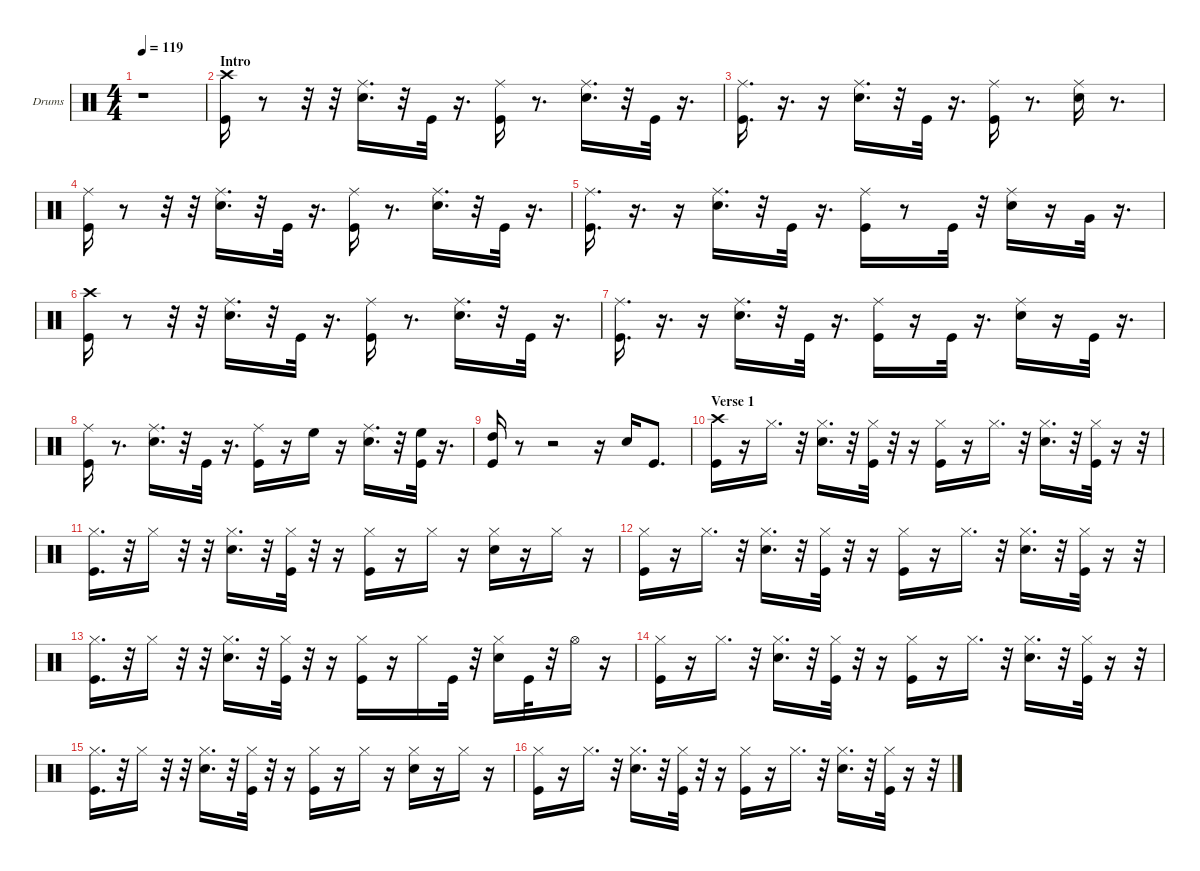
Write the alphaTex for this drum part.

\hideDynamics
\bracketExtendMode groupsimilarinstruments
\firstSystemTrackNameOrientation horizontal
\otherSystemsTrackNameOrientation horizontal
\track ("Drums" "Drums") {instrument percussion}
\staff {score}
\articulation defaults
\ts (4 4)
\tempo 119
\clef neutral
\ks c
r.1{dy mf} |
\section ("" "Intro")
("Kick (hit)" "Crash high (hit)").16 r.8 r.32 r.32 ("Ride (middle)" "Snare (hit) 2").16{d} r.32 "Kick (hit)".32 r.16{d} ("Kick (hit)" "Ride (middle)").16 r.8{d} ("Snare (hit) 2" "Ride (middle)").16{d} r.32 "Kick (hit)".32 r.16{d} |
("Ride (middle)" "Kick (hit)").16{d} r.16{d} r.16 ("Ride (middle)" "Snare (hit) 2").16{d} r.32 "Kick (hit)".32 r.16{d} ("Ride (middle)" "Kick (hit)").16 r.8{d} ("Ride (middle)" "Snare (hit) 2").16 r.8{d} |
("Kick (hit)" "Ride (middle)").16 r.8 r.32 r.32 ("Ride (middle)" "Snare (hit) 2").16{d} r.32 "Kick (hit)".32 r.16{d} ("Kick (hit)" "Ride (middle)").16 r.8{d} ("Snare (hit) 2" "Ride (middle)").16{d} r.32 "Kick (hit)".32 r.16{d} |
("Ride (middle)" "Kick (hit)").16{d} r.16{d} r.16 ("Ride (middle)" "Snare (hit) 2").16{d} r.32 "Kick (hit)".32 r.16{d} ("Ride (middle)" "Kick (hit)").16 r.8 "Kick (hit)".32 r.32 ("Ride (middle)" "Snare (hit) 2").16 r.16 "Very Low Tom (hit)".32 r.16{d} |
("Kick (hit)" "Crash high (hit)").16 r.8 r.32 r.32 ("Ride (middle)" "Snare (hit) 2").16{d} r.32 "Kick (hit)".32 r.16{d} ("Kick (hit)" "Ride (middle)").16 r.8{d} ("Snare (hit) 2" "Ride (middle)").16{d} r.32 "Kick (hit)".32 r.16{d} |
("Ride (middle)" "Kick (hit)").16{d} r.16{d} r.16 ("Ride (middle)" "Snare (hit) 2").16{d} r.32 "Kick (hit)".32 r.16{d} ("Ride (middle)" "Kick (hit)").16 r.16 "Kick (hit)".32 r.16{d} ("Ride (middle)" "Snare (hit) 2").16 r.16 "Kick (hit)".32 r.16{d} |
("Kick (hit)" "Ride (middle)").16 r.8{d} ("Ride (middle)" "Snare (hit) 2").16{d} r.32 "Kick (hit)".32 r.16{d} ("Kick (hit)" "Ride (middle)").16 r.16 "High Floor Tom (hit)".16 r.16 ("Snare (hit) 2" "Ride (middle)").16{d} r.32 ("Kick (hit)" "High Floor Tom (hit)").32 r.16{d} |
("Kick (hit)" "High Tom (hit)").16 r.8 r.2 r.16 "Snare (hit) 2".16 "Kick (hit)".8{d} |
\section ("" "Verse 1")
("Kick (hit)" "Crash high (hit)").16 r.16 "Hi-Hat (closed)".16{d} r.32 ("Snare (hit) 2" "Hi-Hat (closed)").16{d} r.32 ("Kick (hit)" "Hi-Hat (closed)").32 r.32 r.16 ("Kick (hit)" "Hi-Hat (closed)").16 r.16 "Hi-Hat (closed)".16{d} r.32 ("Snare (hit) 2" "Hi-Hat (closed)").16{d} r.32 ("Kick (hit)" "Hi-Hat (closed)").32 r.16 r.32 |
("Kick (hit)" "Hi-Hat (closed)").16{d} r.32 "Hi-Hat (closed)".16 r.32 r.32 ("Snare (hit) 2" "Hi-Hat (closed)").16{d} r.32 ("Kick (hit)" "Hi-Hat (closed)").32 r.32 r.16 ("Kick (hit)" "Hi-Hat (closed)").16 r.16 "Hi-Hat (closed)".16 r.16 ("Snare (hit) 2" "Hi-Hat (closed)").16 r.16 "Hi-Hat (closed)".16 r.16 |
("Kick (hit)" "Hi-Hat (closed)").16 r.16 "Hi-Hat (closed)".16{d} r.32 ("Snare (hit) 2" "Hi-Hat (closed)").16{d} r.32 ("Kick (hit)" "Hi-Hat (closed)").32 r.32 r.16 ("Kick (hit)" "Hi-Hat (closed)").16 r.16 "Hi-Hat (closed)".16{d} r.32 ("Snare (hit) 2" "Hi-Hat (closed)").16{d} r.32 ("Kick (hit)" "Hi-Hat (closed)").32 r.16 r.32 |
("Kick (hit)" "Hi-Hat (closed)").16{d} r.32 "Hi-Hat (closed)".16 r.32 r.32 ("Snare (hit) 2" "Hi-Hat (closed)").16{d} r.32 ("Kick (hit)" "Hi-Hat (closed)").32 r.32 r.16 ("Kick (hit)" "Hi-Hat (closed)").16 r.16 "Hi-Hat (closed)".16 "Kick (hit)".32 r.32 ("Snare (hit) 2" "Hi-Hat (closed)").16 "Kick (hit)".32 r.32 "Hi-Hat (open)".16 r.16 |
("Kick (hit)" "Hi-Hat (closed)").16 r.16 "Hi-Hat (closed)".16{d} r.32 ("Snare (hit) 2" "Hi-Hat (closed)").16{d} r.32 ("Kick (hit)" "Hi-Hat (closed)").32 r.32 r.16 ("Kick (hit)" "Hi-Hat (closed)").16 r.16 "Hi-Hat (closed)".16{d} r.32 ("Snare (hit) 2" "Hi-Hat (closed)").16{d} r.32 ("Kick (hit)" "Hi-Hat (closed)").32 r.16 r.32 |
("Kick (hit)" "Hi-Hat (closed)").16{d} r.32 "Hi-Hat (closed)".16 r.32 r.32 ("Snare (hit) 2" "Hi-Hat (closed)").16{d} r.32 ("Kick (hit)" "Hi-Hat (closed)").32 r.32 r.16 ("Kick (hit)" "Hi-Hat (closed)").16 r.16 "Hi-Hat (closed)".16 r.16 ("Snare (hit) 2" "Hi-Hat (closed)").16 r.16 "Hi-Hat (closed)".16 r.16 |
("Kick (hit)" "Hi-Hat (closed)").16 r.16 "Hi-Hat (closed)".16{d} r.32 ("Snare (hit) 2" "Hi-Hat (closed)").16{d} r.32 ("Kick (hit)" "Hi-Hat (closed)").32 r.32 r.16 ("Kick (hit)" "Hi-Hat (closed)").16 r.16 "Hi-Hat (closed)".16{d} r.32 ("Snare (hit) 2" "Hi-Hat (closed)").16{d} r.32 ("Kick (hit)" "Hi-Hat (closed)").32 r.16 r.32
